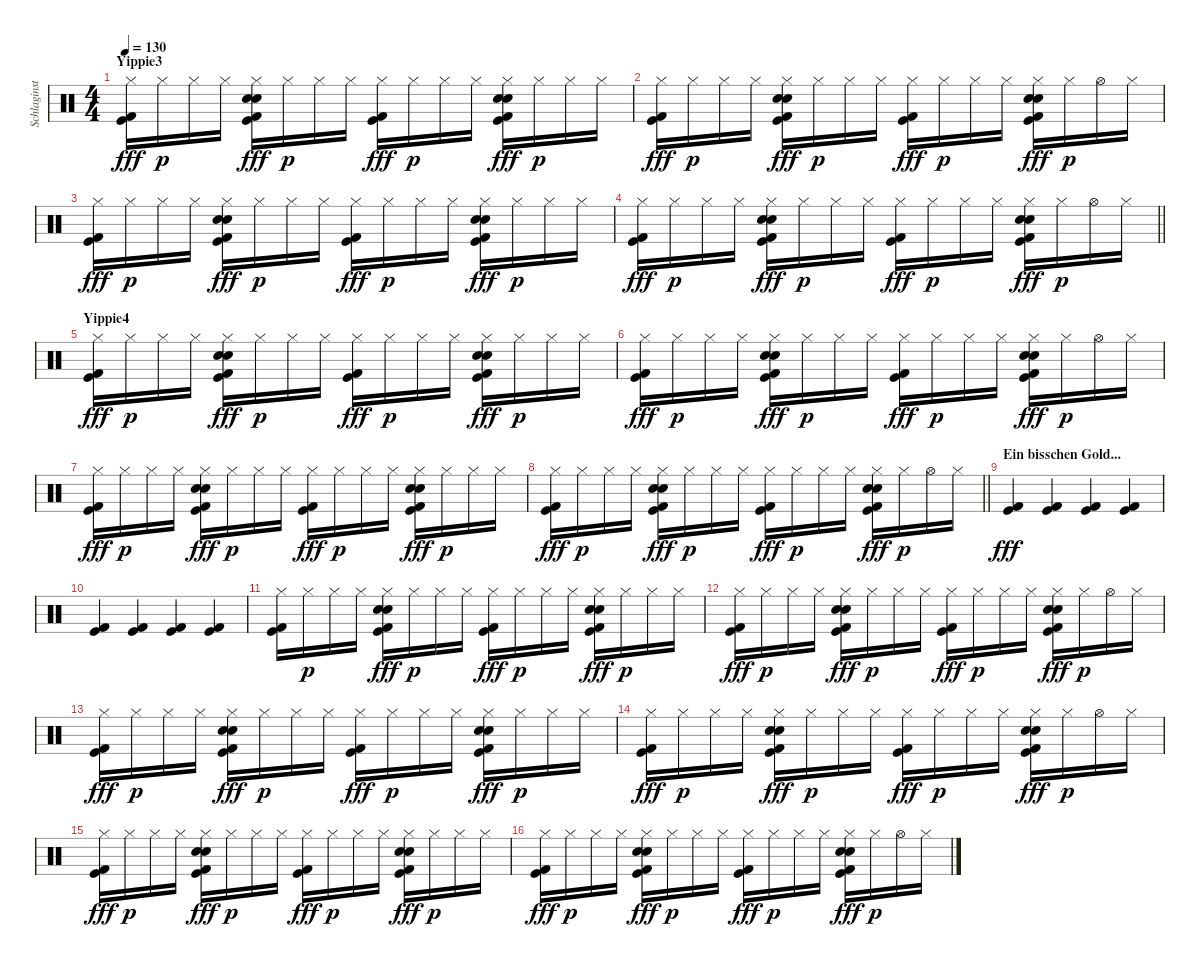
\track ("Schlaginstrumente - Auswahl" "Schlaginst") {instrument percussion}
\staff {score}
\articulation defaults
\ts (4 4)
\section ("" "Yippie3")
\tempo 130
\clef neutral
\ks c
("Hi-Hat (closed)" "Kick (hit) 2" "Kick (hit)").16{dy fff} "Hi-Hat (closed)".16{dy p} "Hi-Hat (closed)".16 "Hi-Hat (closed)".16 ("Hand Clap (hit)" "Hi-Hat (closed)" "Snare (hit) 2" "Kick (hit) 2" "Kick (hit)").16{dy fff} "Hi-Hat (closed)".16{dy p} "Hi-Hat (closed)".16 "Hi-Hat (closed)".16 ("Hi-Hat (closed)" "Kick (hit) 2" "Kick (hit)").16{dy fff} "Hi-Hat (closed)".16{dy p} "Hi-Hat (closed)".16 "Hi-Hat (closed)".16 ("Hand Clap (hit)" "Hi-Hat (closed)" "Snare (hit) 2" "Kick (hit) 2" "Kick (hit)").16{dy fff} "Hi-Hat (closed)".16{dy p} "Hi-Hat (closed)".16 "Hi-Hat (closed)".16 |
("Hi-Hat (closed)" "Kick (hit) 2" "Kick (hit)").16{dy fff} "Hi-Hat (closed)".16{dy p} "Hi-Hat (closed)".16 "Hi-Hat (closed)".16 ("Hand Clap (hit)" "Hi-Hat (closed)" "Snare (hit) 2" "Kick (hit) 2" "Kick (hit)").16{dy fff} "Hi-Hat (closed)".16{dy p} "Hi-Hat (closed)".16 "Hi-Hat (closed)".16 ("Hi-Hat (closed)" "Kick (hit) 2" "Kick (hit)").16{dy fff} "Hi-Hat (closed)".16{dy p} "Hi-Hat (closed)".16 "Hi-Hat (closed)".16 ("Hand Clap (hit)" "Hi-Hat (closed)" "Snare (hit) 2" "Kick (hit) 2" "Kick (hit)").16{dy fff} "Hi-Hat (closed)".16{dy p} "Hi-Hat (open)".16 "Hi-Hat (closed)".16 |
("Hi-Hat (closed)" "Kick (hit) 2" "Kick (hit)").16{dy fff} "Hi-Hat (closed)".16{dy p} "Hi-Hat (closed)".16 "Hi-Hat (closed)".16 ("Hand Clap (hit)" "Hi-Hat (closed)" "Snare (hit) 2" "Kick (hit) 2" "Kick (hit)").16{dy fff} "Hi-Hat (closed)".16{dy p} "Hi-Hat (closed)".16 "Hi-Hat (closed)".16 ("Hi-Hat (closed)" "Kick (hit) 2" "Kick (hit)").16{dy fff} "Hi-Hat (closed)".16{dy p} "Hi-Hat (closed)".16 "Hi-Hat (closed)".16 ("Hand Clap (hit)" "Hi-Hat (closed)" "Snare (hit) 2" "Kick (hit) 2" "Kick (hit)").16{dy fff} "Hi-Hat (closed)".16{dy p} "Hi-Hat (closed)".16 "Hi-Hat (closed)".16 |
\barLineRight lightlight
("Hi-Hat (closed)" "Kick (hit) 2" "Kick (hit)").16{dy fff} "Hi-Hat (closed)".16{dy p} "Hi-Hat (closed)".16 "Hi-Hat (closed)".16 ("Hand Clap (hit)" "Hi-Hat (closed)" "Snare (hit) 2" "Kick (hit) 2" "Kick (hit)").16{dy fff} "Hi-Hat (closed)".16{dy p} "Hi-Hat (closed)".16 "Hi-Hat (closed)".16 ("Hi-Hat (closed)" "Kick (hit) 2" "Kick (hit)").16{dy fff} "Hi-Hat (closed)".16{dy p} "Hi-Hat (closed)".16 "Hi-Hat (closed)".16 ("Hand Clap (hit)" "Hi-Hat (closed)" "Snare (hit) 2" "Kick (hit) 2" "Kick (hit)").16{dy fff} "Hi-Hat (closed)".16{dy p} "Hi-Hat (open)".16 "Hi-Hat (closed)".16 |
\section ("" "Yippie4")
("Hi-Hat (closed)" "Kick (hit) 2" "Kick (hit)").16{dy fff} "Hi-Hat (closed)".16{dy p} "Hi-Hat (closed)".16 "Hi-Hat (closed)".16 ("Hand Clap (hit)" "Hi-Hat (closed)" "Snare (hit) 2" "Kick (hit) 2" "Kick (hit)").16{dy fff} "Hi-Hat (closed)".16{dy p} "Hi-Hat (closed)".16 "Hi-Hat (closed)".16 ("Hi-Hat (closed)" "Kick (hit) 2" "Kick (hit)").16{dy fff} "Hi-Hat (closed)".16{dy p} "Hi-Hat (closed)".16 "Hi-Hat (closed)".16 ("Hand Clap (hit)" "Hi-Hat (closed)" "Snare (hit) 2" "Kick (hit) 2" "Kick (hit)").16{dy fff} "Hi-Hat (closed)".16{dy p} "Hi-Hat (closed)".16 "Hi-Hat (closed)".16 |
("Hi-Hat (closed)" "Kick (hit) 2" "Kick (hit)").16{dy fff} "Hi-Hat (closed)".16{dy p} "Hi-Hat (closed)".16 "Hi-Hat (closed)".16 ("Hand Clap (hit)" "Hi-Hat (closed)" "Snare (hit) 2" "Kick (hit) 2" "Kick (hit)").16{dy fff} "Hi-Hat (closed)".16{dy p} "Hi-Hat (closed)".16 "Hi-Hat (closed)".16 ("Hi-Hat (closed)" "Kick (hit) 2" "Kick (hit)").16{dy fff} "Hi-Hat (closed)".16{dy p} "Hi-Hat (closed)".16 "Hi-Hat (closed)".16 ("Hand Clap (hit)" "Hi-Hat (closed)" "Snare (hit) 2" "Kick (hit) 2" "Kick (hit)").16{dy fff} "Hi-Hat (closed)".16{dy p} "Hi-Hat (open)".16 "Hi-Hat (closed)".16 |
("Hi-Hat (closed)" "Kick (hit) 2" "Kick (hit)").16{dy fff} "Hi-Hat (closed)".16{dy p} "Hi-Hat (closed)".16 "Hi-Hat (closed)".16 ("Hand Clap (hit)" "Hi-Hat (closed)" "Snare (hit) 2" "Kick (hit) 2" "Kick (hit)").16{dy fff} "Hi-Hat (closed)".16{dy p} "Hi-Hat (closed)".16 "Hi-Hat (closed)".16 ("Hi-Hat (closed)" "Kick (hit) 2" "Kick (hit)").16{dy fff} "Hi-Hat (closed)".16{dy p} "Hi-Hat (closed)".16 "Hi-Hat (closed)".16 ("Hand Clap (hit)" "Hi-Hat (closed)" "Snare (hit) 2" "Kick (hit) 2" "Kick (hit)").16{dy fff} "Hi-Hat (closed)".16{dy p} "Hi-Hat (closed)".16 "Hi-Hat (closed)".16 |
\barLineRight lightlight
("Hi-Hat (closed)" "Kick (hit) 2" "Kick (hit)").16{dy fff} "Hi-Hat (closed)".16{dy p} "Hi-Hat (closed)".16 "Hi-Hat (closed)".16 ("Hand Clap (hit)" "Hi-Hat (closed)" "Snare (hit) 2" "Kick (hit) 2" "Kick (hit)").16{dy fff} "Hi-Hat (closed)".16{dy p} "Hi-Hat (closed)".16 "Hi-Hat (closed)".16 ("Hi-Hat (closed)" "Kick (hit) 2" "Kick (hit)").16{dy fff} "Hi-Hat (closed)".16{dy p} "Hi-Hat (closed)".16 "Hi-Hat (closed)".16 ("Hand Clap (hit)" "Hi-Hat (closed)" "Snare (hit) 2" "Kick (hit) 2" "Kick (hit)").16{dy fff} "Hi-Hat (closed)".16{dy p} "Hi-Hat (open)".16 "Hi-Hat (closed)".16 |
\section ("" "Ein bisschen Gold...")
("Kick (hit) 2" "Kick (hit)").4{dy fff} ("Kick (hit) 2" "Kick (hit)").4 ("Kick (hit) 2" "Kick (hit)").4 ("Kick (hit) 2" "Kick (hit)").4 |
("Kick (hit) 2" "Kick (hit)").4 ("Kick (hit) 2" "Kick (hit)").4 ("Kick (hit) 2" "Kick (hit)").4 ("Kick (hit) 2" "Kick (hit)").4 |
("Hi-Hat (closed)" "Kick (hit) 2" "Kick (hit)").16 "Hi-Hat (closed)".16{dy p} "Hi-Hat (closed)".16 "Hi-Hat (closed)".16 ("Electric Snare (hit)" "Hi-Hat (closed)" "Snare (hit) 2" "Kick (hit) 2" "Kick (hit)").16{dy fff} "Hi-Hat (closed)".16{dy p} "Hi-Hat (closed)".16 "Hi-Hat (closed)".16 ("Hi-Hat (closed)" "Kick (hit) 2" "Kick (hit)").16{dy fff} "Hi-Hat (closed)".16{dy p} "Hi-Hat (closed)".16 "Hi-Hat (closed)".16 ("Electric Snare (hit)" "Hi-Hat (closed)" "Snare (hit) 2" "Kick (hit) 2" "Kick (hit)").16{dy fff} "Hi-Hat (closed)".16{dy p} "Hi-Hat (closed)".16 "Hi-Hat (closed)".16 |
("Hi-Hat (closed)" "Kick (hit) 2" "Kick (hit)").16{dy fff} "Hi-Hat (closed)".16{dy p} "Hi-Hat (closed)".16 "Hi-Hat (closed)".16 ("Electric Snare (hit)" "Hi-Hat (closed)" "Snare (hit) 2" "Kick (hit) 2" "Kick (hit)").16{dy fff} "Hi-Hat (closed)".16{dy p} "Hi-Hat (closed)".16 "Hi-Hat (closed)".16 ("Hi-Hat (closed)" "Kick (hit) 2" "Kick (hit)").16{dy fff} "Hi-Hat (closed)".16{dy p} "Hi-Hat (closed)".16 "Hi-Hat (closed)".16 ("Electric Snare (hit)" "Hi-Hat (closed)" "Snare (hit) 2" "Kick (hit) 2" "Kick (hit)").16{dy fff} "Hi-Hat (closed)".16{dy p} "Hi-Hat (open)".16 "Hi-Hat (closed)".16 |
("Hi-Hat (closed)" "Kick (hit) 2" "Kick (hit)").16{dy fff} "Hi-Hat (closed)".16{dy p} "Hi-Hat (closed)".16 "Hi-Hat (closed)".16 ("Electric Snare (hit)" "Hi-Hat (closed)" "Snare (hit) 2" "Kick (hit) 2" "Kick (hit)").16{dy fff} "Hi-Hat (closed)".16{dy p} "Hi-Hat (closed)".16 "Hi-Hat (closed)".16 ("Hi-Hat (closed)" "Kick (hit) 2" "Kick (hit)").16{dy fff} "Hi-Hat (closed)".16{dy p} "Hi-Hat (closed)".16 "Hi-Hat (closed)".16 ("Electric Snare (hit)" "Hi-Hat (closed)" "Snare (hit) 2" "Kick (hit) 2" "Kick (hit)").16{dy fff} "Hi-Hat (closed)".16{dy p} "Hi-Hat (closed)".16 "Hi-Hat (closed)".16 |
("Hi-Hat (closed)" "Kick (hit) 2" "Kick (hit)").16{dy fff} "Hi-Hat (closed)".16{dy p} "Hi-Hat (closed)".16 "Hi-Hat (closed)".16 ("Electric Snare (hit)" "Hi-Hat (closed)" "Snare (hit) 2" "Kick (hit) 2" "Kick (hit)").16{dy fff} "Hi-Hat (closed)".16{dy p} "Hi-Hat (closed)".16 "Hi-Hat (closed)".16 ("Hi-Hat (closed)" "Kick (hit) 2" "Kick (hit)").16{dy fff} "Hi-Hat (closed)".16{dy p} "Hi-Hat (closed)".16 "Hi-Hat (closed)".16 ("Electric Snare (hit)" "Hi-Hat (closed)" "Snare (hit) 2" "Kick (hit) 2" "Kick (hit)").16{dy fff} "Hi-Hat (closed)".16{dy p} "Hi-Hat (open)".16 "Hi-Hat (closed)".16 |
("Hi-Hat (closed)" "Kick (hit) 2" "Kick (hit)").16{dy fff} "Hi-Hat (closed)".16{dy p} "Hi-Hat (closed)".16 "Hi-Hat (closed)".16 ("Electric Snare (hit)" "Hi-Hat (closed)" "Snare (hit) 2" "Kick (hit) 2" "Kick (hit)").16{dy fff} "Hi-Hat (closed)".16{dy p} "Hi-Hat (closed)".16 "Hi-Hat (closed)".16 ("Hi-Hat (closed)" "Kick (hit) 2" "Kick (hit)").16{dy fff} "Hi-Hat (closed)".16{dy p} "Hi-Hat (closed)".16 "Hi-Hat (closed)".16 ("Electric Snare (hit)" "Hi-Hat (closed)" "Snare (hit) 2" "Kick (hit) 2" "Kick (hit)").16{dy fff} "Hi-Hat (closed)".16{dy p} "Hi-Hat (closed)".16 "Hi-Hat (closed)".16 |
("Hi-Hat (closed)" "Kick (hit) 2" "Kick (hit)").16{dy fff} "Hi-Hat (closed)".16{dy p} "Hi-Hat (closed)".16 "Hi-Hat (closed)".16 ("Electric Snare (hit)" "Hi-Hat (closed)" "Snare (hit) 2" "Kick (hit) 2" "Kick (hit)").16{dy fff} "Hi-Hat (closed)".16{dy p} "Hi-Hat (closed)".16 "Hi-Hat (closed)".16 ("Hi-Hat (closed)" "Kick (hit) 2" "Kick (hit)").16{dy fff} "Hi-Hat (closed)".16{dy p} "Hi-Hat (closed)".16 "Hi-Hat (closed)".16 ("Electric Snare (hit)" "Hi-Hat (closed)" "Snare (hit) 2" "Kick (hit) 2" "Kick (hit)").16{dy fff} "Hi-Hat (closed)".16{dy p} "Hi-Hat (open)".16 "Hi-Hat (closed)".16
